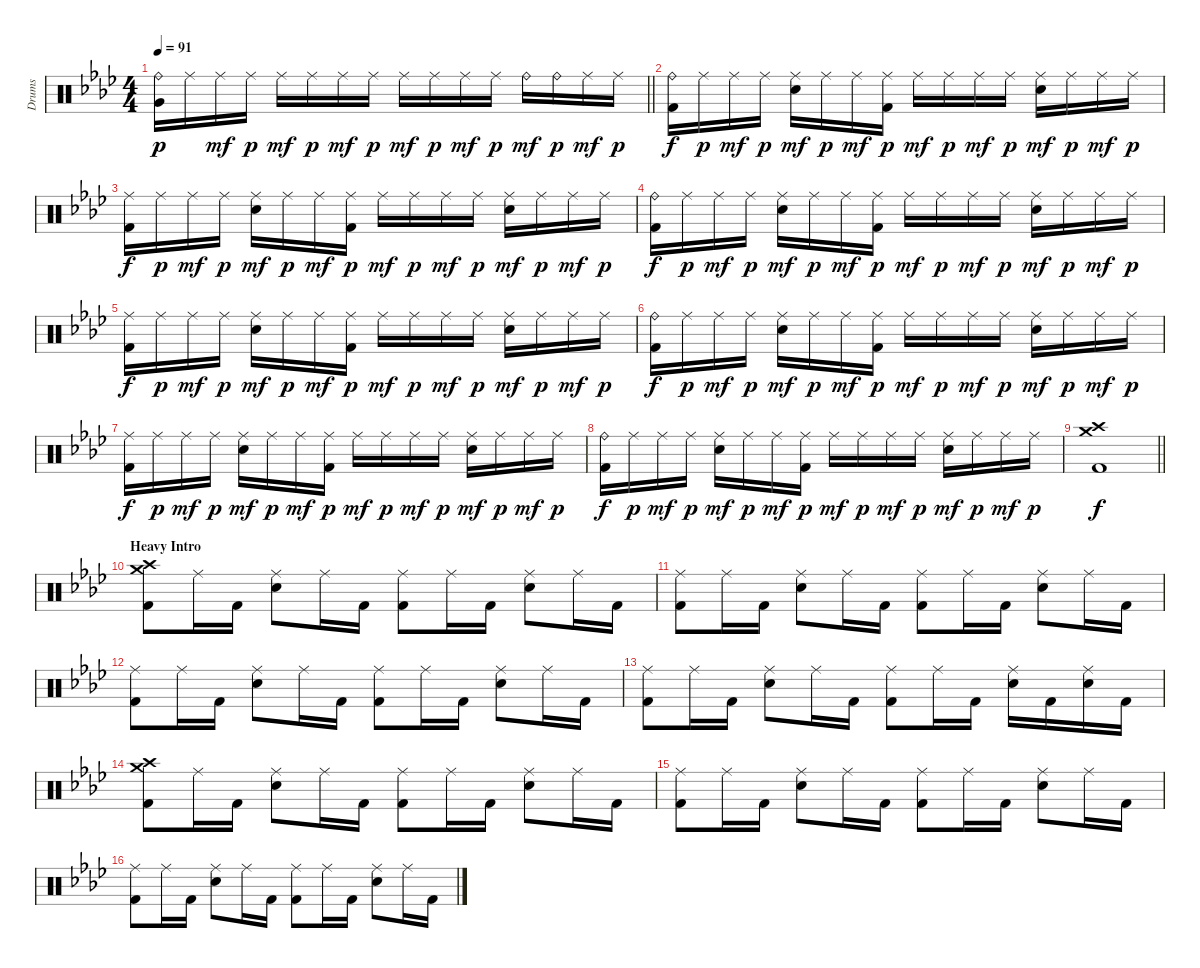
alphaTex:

\track ("Drums" "Drums") {instrument percussion}
\staff {score}
\articulation defaults
\ts (4 4)
\tempo 91
\clef neutral
\barLineRight lightlight
\ks fminor
("Ride (bell)" "Very Low Tom (hit)").16{dy p} "Ride (middle)".16 "Ride (middle)".16{dy mf} "Ride (middle)".16{dy p} "Ride (middle)".16{dy mf} "Ride (middle)".16{dy p} "Ride (middle)".16{dy mf} "Ride (middle)".16{dy p} "Ride (middle)".16{dy mf} "Ride (middle)".16{dy p} "Ride (middle)".16{dy mf} "Ride (middle)".16{dy p} "Ride (bell)".16{dy mf} "Ride (bell)".16{dy p} "Ride (middle)".16{dy mf} "Ride (middle)".16{dy p} |
\section ("" " ")
("Ride (bell)" "Kick (hit) 2").16{dy f} "Ride (middle)".16{dy p} "Ride (middle)".16{dy mf} "Ride (middle)".16{dy p} ("Ride (middle)" "Electric Snare (hit)").16{dy mf} "Ride (middle)".16{dy p} "Ride (middle)".16{dy mf} ("Ride (middle)" "Kick (hit) 2").16{dy p} "Ride (middle)".16{dy mf} "Ride (middle)".16{dy p} "Ride (middle)".16{dy mf} "Ride (middle)".16{dy p} ("Ride (middle)" "Electric Snare (hit)").16{dy mf} "Ride (middle)".16{dy p} "Ride (middle)".16{dy mf} "Ride (middle)".16{dy p} |
("Ride (middle)" "Kick (hit) 2").16{dy f} "Ride (middle)".16{dy p} "Ride (middle)".16{dy mf} "Ride (middle)".16{dy p} ("Ride (middle)" "Electric Snare (hit)").16{dy mf} "Ride (middle)".16{dy p} "Ride (middle)".16{dy mf} ("Ride (middle)" "Kick (hit) 2").16{dy p} "Ride (middle)".16{dy mf} "Ride (middle)".16{dy p} "Ride (middle)".16{dy mf} "Ride (middle)".16{dy p} ("Ride (middle)" "Electric Snare (hit)").16{dy mf} "Ride (middle)".16{dy p} "Ride (middle)".16{dy mf} "Ride (middle)".16{dy p} |
("Ride (bell)" "Kick (hit) 2").16{dy f} "Ride (middle)".16{dy p} "Ride (middle)".16{dy mf} "Ride (middle)".16{dy p} ("Ride (middle)" "Electric Snare (hit)").16{dy mf} "Ride (middle)".16{dy p} "Ride (middle)".16{dy mf} ("Ride (middle)" "Kick (hit) 2").16{dy p} "Ride (middle)".16{dy mf} "Ride (middle)".16{dy p} "Ride (middle)".16{dy mf} "Ride (middle)".16{dy p} ("Ride (middle)" "Electric Snare (hit)").16{dy mf} "Ride (middle)".16{dy p} "Ride (middle)".16{dy mf} "Ride (middle)".16{dy p} |
("Ride (middle)" "Kick (hit) 2").16{dy f} "Ride (middle)".16{dy p} "Ride (middle)".16{dy mf} "Ride (middle)".16{dy p} ("Ride (middle)" "Electric Snare (hit)").16{dy mf} "Ride (middle)".16{dy p} "Ride (middle)".16{dy mf} ("Ride (middle)" "Kick (hit) 2").16{dy p} "Ride (middle)".16{dy mf} "Ride (middle)".16{dy p} "Ride (middle)".16{dy mf} "Ride (middle)".16{dy p} ("Ride (middle)" "Electric Snare (hit)").16{dy mf} "Ride (middle)".16{dy p} "Ride (middle)".16{dy mf} "Ride (middle)".16{dy p} |
("Ride (bell)" "Kick (hit) 2").16{dy f} "Ride (middle)".16{dy p} "Ride (middle)".16{dy mf} "Ride (middle)".16{dy p} ("Ride (middle)" "Electric Snare (hit)").16{dy mf} "Ride (middle)".16{dy p} "Ride (middle)".16{dy mf} ("Ride (middle)" "Kick (hit) 2").16{dy p} "Ride (middle)".16{dy mf} "Ride (middle)".16{dy p} "Ride (middle)".16{dy mf} "Ride (middle)".16{dy p} ("Ride (middle)" "Electric Snare (hit)").16{dy mf} "Ride (middle)".16{dy p} "Ride (middle)".16{dy mf} "Ride (middle)".16{dy p} |
("Ride (middle)" "Kick (hit) 2").16{dy f} "Ride (middle)".16{dy p} "Ride (middle)".16{dy mf} "Ride (middle)".16{dy p} ("Ride (middle)" "Electric Snare (hit)").16{dy mf} "Ride (middle)".16{dy p} "Ride (middle)".16{dy mf} ("Ride (middle)" "Kick (hit) 2").16{dy p} "Ride (middle)".16{dy mf} "Ride (middle)".16{dy p} "Ride (middle)".16{dy mf} "Ride (middle)".16{dy p} ("Ride (middle)" "Electric Snare (hit)").16{dy mf} "Ride (middle)".16{dy p} "Ride (middle)".16{dy mf} "Ride (middle)".16{dy p} |
("Ride (bell)" "Kick (hit) 2").16{dy f} "Ride (middle)".16{dy p} "Ride (middle)".16{dy mf} "Ride (middle)".16{dy p} ("Ride (middle)" "Electric Snare (hit)").16{dy mf} "Ride (middle)".16{dy p} "Ride (middle)".16{dy mf} ("Ride (middle)" "Kick (hit) 2").16{dy p} "Ride (middle)".16{dy mf} "Ride (middle)".16{dy p} "Ride (middle)".16{dy mf} "Ride (middle)".16{dy p} ("Ride (middle)" "Electric Snare (hit)").16{dy mf} "Ride (middle)".16{dy p} "Ride (middle)".16{dy mf} "Ride (middle)".16{dy p} |
\barLineRight lightlight
("Crash medium (hit)" "Crash high (hit)" "Kick (hit) 2").1{dy f} |
\section ("" "Heavy Intro")
("Crash medium (hit)" "Crash high (hit)" "Kick (hit) 2").8{volume 15} "Ride (middle)".16 "Kick (hit) 2".16 ("Ride (middle)" "Electric Snare (hit)").8 "Ride (middle)".16 "Kick (hit) 2".16 ("Ride (middle)" "Kick (hit) 2").8 "Ride (middle)".16 "Kick (hit) 2".16 ("Ride (middle)" "Electric Snare (hit)").8 "Ride (middle)".16 "Kick (hit) 2".16 |
("Ride (middle)" "Kick (hit) 2").8 "Ride (middle)".16 "Kick (hit) 2".16 ("Ride (middle)" "Electric Snare (hit)").8 "Ride (middle)".16 "Kick (hit) 2".16 ("Ride (middle)" "Kick (hit) 2").8 "Ride (middle)".16 "Kick (hit) 2".16 ("Ride (middle)" "Electric Snare (hit)").8 "Ride (middle)".16 "Kick (hit) 2".16 |
("Ride (middle)" "Kick (hit) 2").8 "Ride (middle)".16 "Kick (hit) 2".16 ("Ride (middle)" "Electric Snare (hit)").8 "Ride (middle)".16 "Kick (hit) 2".16 ("Ride (middle)" "Kick (hit) 2").8 "Ride (middle)".16 "Kick (hit) 2".16 ("Ride (middle)" "Electric Snare (hit)").8 "Ride (middle)".16 "Kick (hit) 2".16 |
("Ride (middle)" "Kick (hit) 2").8 "Ride (middle)".16 "Kick (hit) 2".16 ("Ride (middle)" "Electric Snare (hit)").8 "Ride (middle)".16 "Kick (hit) 2".16 ("Ride (middle)" "Kick (hit) 2").8 "Ride (middle)".16 "Kick (hit) 2".16 ("Ride (middle)" "Electric Snare (hit)").16 "Kick (hit) 2".16 ("Ride (middle)" "Electric Snare (hit)").16 "Kick (hit) 2".16 |
("Crash medium (hit)" "Crash high (hit)" "Kick (hit) 2").8{volume 15} "Ride (middle)".16 "Kick (hit) 2".16 ("Ride (middle)" "Electric Snare (hit)").8 "Ride (middle)".16 "Kick (hit) 2".16 ("Ride (middle)" "Kick (hit) 2").8 "Ride (middle)".16 "Kick (hit) 2".16 ("Ride (middle)" "Electric Snare (hit)").8 "Ride (middle)".16 "Kick (hit) 2".16 |
("Ride (middle)" "Kick (hit) 2").8 "Ride (middle)".16 "Kick (hit) 2".16 ("Ride (middle)" "Electric Snare (hit)").8 "Ride (middle)".16 "Kick (hit) 2".16 ("Ride (middle)" "Kick (hit) 2").8 "Ride (middle)".16 "Kick (hit) 2".16 ("Ride (middle)" "Electric Snare (hit)").8 "Ride (middle)".16 "Kick (hit) 2".16 |
("Ride (middle)" "Kick (hit) 2").8 "Ride (middle)".16 "Kick (hit) 2".16 ("Ride (middle)" "Electric Snare (hit)").8 "Ride (middle)".16 "Kick (hit) 2".16 ("Ride (middle)" "Kick (hit) 2").8 "Ride (middle)".16 "Kick (hit) 2".16 ("Ride (middle)" "Electric Snare (hit)").8 "Ride (middle)".16 "Kick (hit) 2".16
